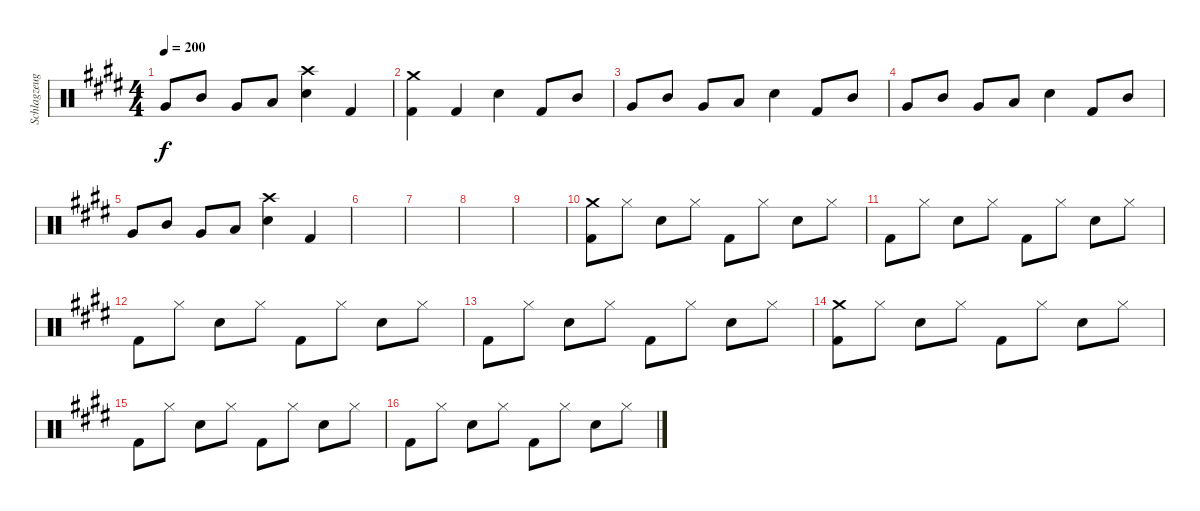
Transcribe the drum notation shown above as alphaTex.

\track ("Schlagzeug" "Schlagzeug") {instrument percussion}
\staff {score}
\articulation defaults
\ts (4 4)
\tempo 200
\clef neutral
\ks e "Very Low Tom (hit)".8{dy f} "Mid Tom (hit)".8 "Very Low Tom (hit)".8 "Low Floor Tom (hit)".8
("Crash high (hit)" "Snare (hit) 2").4 "Kick (hit) 2".4 |
("Crash medium (hit)" "Kick (hit) 2").4 "Kick (hit) 2".4 "Snare (hit) 2".4 "Kick (hit) 2".8 "Mid Tom (hit)".8 |
"Very Low Tom (hit)".8 "Mid Tom (hit)".8 "Very Low Tom (hit)".8 "Low Floor Tom (hit)".8 "Snare (hit) 2".4 "Kick (hit) 2".8 "Mid Tom (hit)".8 |
"Very Low Tom (hit)".8 "Mid Tom (hit)".8 "Very Low Tom (hit)".8 "Low Floor Tom (hit)".8 "Snare (hit) 2".4 "Kick (hit) 2".8 "Mid Tom (hit)".8 |
"Very Low Tom (hit)".8 "Mid Tom (hit)".8 "Very Low Tom (hit)".8 "Low Floor Tom (hit)".8 ("Crash high (hit)" "Snare (hit) 2").4 "Kick (hit) 2".4 |
|
|
|
|
("Crash medium (hit)" "Kick (hit) 2").8 "Hi-Hat (closed)".8 "Snare (hit) 2".8 "Hi-Hat (closed)".8 "Kick (hit) 2".8 "Hi-Hat (closed)".8 "Snare (hit) 2".8 "Hi-Hat (closed)".8 |
"Kick (hit) 2".8 "Hi-Hat (closed)".8 "Snare (hit) 2".8 "Hi-Hat (closed)".8 "Kick (hit) 2".8 "Hi-Hat (closed)".8 "Snare (hit) 2".8 "Hi-Hat (closed)".8 |
"Kick (hit) 2".8 "Hi-Hat (closed)".8 "Snare (hit) 2".8 "Hi-Hat (closed)".8 "Kick (hit) 2".8 "Hi-Hat (closed)".8 "Snare (hit) 2".8 "Hi-Hat (closed)".8 |
"Kick (hit) 2".8 "Hi-Hat (closed)".8 "Snare (hit) 2".8 "Hi-Hat (closed)".8 "Kick (hit) 2".8 "Hi-Hat (closed)".8 "Snare (hit) 2".8 "Hi-Hat (closed)".8 |
("Crash medium (hit)" "Kick (hit) 2").8 "Hi-Hat (closed)".8 "Snare (hit) 2".8 "Hi-Hat (closed)".8 "Kick (hit) 2".8 "Hi-Hat (closed)".8 "Snare (hit) 2".8 "Hi-Hat (closed)".8 |
"Kick (hit) 2".8 "Hi-Hat (closed)".8 "Snare (hit) 2".8 "Hi-Hat (closed)".8 "Kick (hit) 2".8 "Hi-Hat (closed)".8 "Snare (hit) 2".8 "Hi-Hat (closed)".8 |
"Kick (hit) 2".8 "Hi-Hat (closed)".8 "Snare (hit) 2".8 "Hi-Hat (closed)".8 "Kick (hit) 2".8 "Hi-Hat (closed)".8 "Snare (hit) 2".8 "Hi-Hat (closed)".8
